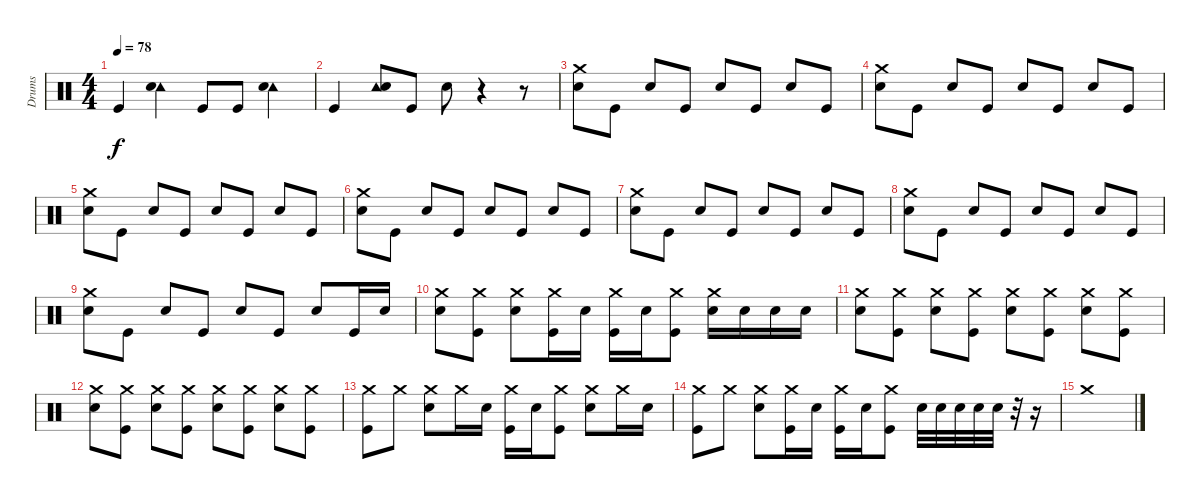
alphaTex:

\track ("Drums" "Drums") {instrument percussion}
\staff {score}
\articulation defaults
\ts (4 4)
\tempo 78
\clef neutral
\ks c "Kick (hit)".4{dy f}
("Tambourine (hit)" "Electric Snare (hit)").4 "Kick (hit)".8 "Kick (hit)".8 ("Tambourine (hit)" "Electric Snare (hit)").4 |
"Kick (hit)".4 ("Tambourine (hit)" "Electric Snare (hit)").8 "Kick (hit)".8 "Electric Snare (hit)".8 r.4 r.8 |
("Crash medium (hit)" "Electric Snare (hit)").8 "Kick (hit)".8 "Electric Snare (hit)".8 "Kick (hit)".8 "Electric Snare (hit)".8 "Kick (hit)".8 "Electric Snare (hit)".8 "Kick (hit)".8 |
("Crash medium (hit)" "Electric Snare (hit)").8 "Kick (hit)".8 "Electric Snare (hit)".8 "Kick (hit)".8 "Electric Snare (hit)".8 "Kick (hit)".8 "Electric Snare (hit)".8 "Kick (hit)".8 |
("Crash medium (hit)" "Electric Snare (hit)").8 "Kick (hit)".8 "Electric Snare (hit)".8 "Kick (hit)".8 "Electric Snare (hit)".8 "Kick (hit)".8 "Electric Snare (hit)".8 "Kick (hit)".8 |
("Crash medium (hit)" "Electric Snare (hit)").8 "Kick (hit)".8 "Electric Snare (hit)".8 "Kick (hit)".8 "Electric Snare (hit)".8 "Kick (hit)".8 "Electric Snare (hit)".8 "Kick (hit)".8 |
("Crash medium (hit)" "Electric Snare (hit)").8 "Kick (hit)".8 "Electric Snare (hit)".8 "Kick (hit)".8 "Electric Snare (hit)".8 "Kick (hit)".8 "Electric Snare (hit)".8 "Kick (hit)".8 |
("Crash medium (hit)" "Electric Snare (hit)").8 "Kick (hit)".8 "Electric Snare (hit)".8 "Kick (hit)".8 "Electric Snare (hit)".8 "Kick (hit)".8 "Electric Snare (hit)".8 "Kick (hit)".8 |
("Crash medium (hit)" "Electric Snare (hit)").8 "Kick (hit)".8 "Electric Snare (hit)".8 "Kick (hit)".8 "Electric Snare (hit)".8 "Kick (hit)".8 "Electric Snare (hit)".8 "Kick (hit)".16 "Electric Snare (hit)".16 |
("Crash medium (hit)" "Electric Snare (hit)").8 ("Crash medium (hit)" "Kick (hit)").8 ("Crash medium (hit)" "Electric Snare (hit)").8 ("Crash medium (hit)" "Kick (hit)").16 "Electric Snare (hit)".16 ("Crash medium (hit)" "Kick (hit)").16 "Electric Snare (hit)".16 ("Crash medium (hit)" "Kick (hit)").8 ("Crash medium (hit)" "Electric Snare (hit)").16 "Electric Snare (hit)".16 "Electric Snare (hit)".16 "Electric Snare (hit)".16 |
("Crash medium (hit)" "Electric Snare (hit)").8 ("Crash medium (hit)" "Kick (hit)").8 ("Crash medium (hit)" "Electric Snare (hit)").8 ("Crash medium (hit)" "Kick (hit)").8 ("Crash medium (hit)" "Electric Snare (hit)").8 ("Crash medium (hit)" "Kick (hit)").8 ("Crash medium (hit)" "Electric Snare (hit)").8 ("Crash medium (hit)" "Kick (hit)").8 |
("Crash medium (hit)" "Electric Snare (hit)").8 ("Crash medium (hit)" "Kick (hit)").8 ("Crash medium (hit)" "Electric Snare (hit)").8 ("Crash medium (hit)" "Kick (hit)").8 ("Crash medium (hit)" "Electric Snare (hit)").8 ("Crash medium (hit)" "Kick (hit)").8 ("Crash medium (hit)" "Electric Snare (hit)").8 ("Crash medium (hit)" "Kick (hit)").8 |
("Crash medium (hit)" "Kick (hit)").8 "Crash medium (hit)".8 ("Crash medium (hit)" "Electric Snare (hit)").8 "Crash medium (hit)".16 "Electric Snare (hit)".16 ("Crash medium (hit)" "Kick (hit)").16 "Electric Snare (hit)".16 ("Crash medium (hit)" "Kick (hit)").8 ("Crash medium (hit)" "Electric Snare (hit)").8 "Crash medium (hit)".16 "Electric Snare (hit)".16 |
("Crash medium (hit)" "Kick (hit)").8 "Crash medium (hit)".8 ("Crash medium (hit)" "Electric Snare (hit)").8 ("Crash medium (hit)" "Kick (hit)").16 "Electric Snare (hit)".16 ("Crash medium (hit)" "Kick (hit)").16 "Electric Snare (hit)".16 ("Crash medium (hit)" "Kick (hit)").8 "Electric Snare (hit)".32 "Electric Snare (hit)".32 "Electric Snare (hit)".32 "Electric Snare (hit)".32 "Electric Snare (hit)".32 r.32 r.16 |
"Crash medium (hit)".1
